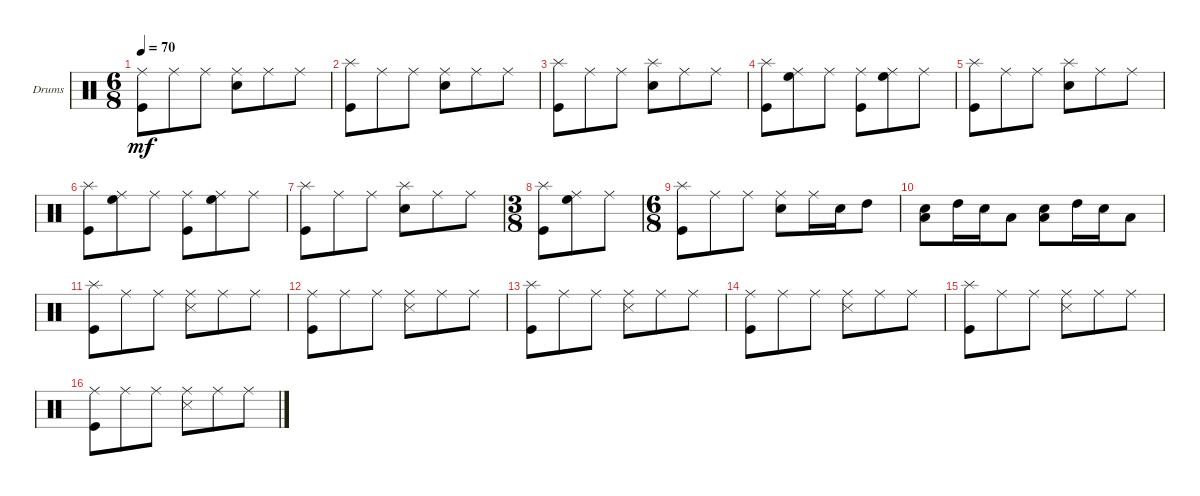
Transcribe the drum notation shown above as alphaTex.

\defaultSystemsLayout 4
\bracketExtendMode groupsimilarinstruments
\firstSystemTrackNameOrientation horizontal
\otherSystemsTrackNameOrientation horizontal
\track ("Drumkit" "Drums") {instrument percussion}
\staff {score}
\articulation defaults
\ts (6 8)
\tempo 70
\clef neutral
\scale
0.333333
\ks c
("Ride (middle)" "Kick (hit)").8{dy mf} "Ride (middle)".8 "Ride (middle)".8 ("Ride (middle)" "Snare (hit) 2").8 "Ride (middle)".8 "Ride (middle)".8 |
\scale
0.333333 ("Kick (hit)" "Splash (hit)").8 "Ride (middle)".8 "Ride (middle)".8 ("Ride (middle)" "Snare (hit) 2").8 "Ride (middle)".8 "Ride (middle)".8 |
\scale
0.333333 ("Splash (hit)" "Kick (hit)").8 "Ride (middle)".8 "Ride (middle)".8 ("Splash (hit)" "Snare (hit) 2").8 "Ride (middle)".8 "Ride (middle)".8 |
\scale
0.333333 ("Splash (hit)" "Kick (hit)").8 ("Ride (middle)" "High Floor Tom (hit)").8 "Ride (middle)".8 ("Ride (middle)" "Kick (hit)").8 ("High Floor Tom (hit)" "Ride (middle)").8 "Ride (middle)".8 |
\scale
0.333333 ("Splash (hit)" "Kick (hit)").8 "Ride (middle)".8 "Ride (middle)".8 ("Splash (hit)" "Snare (hit) 2").8 "Ride (middle)".8 "Ride (middle)".8 |
\scale
0.263889 ("Splash (hit)" "Kick (hit)").8 ("Ride (middle)" "High Floor Tom (hit)").8 "Ride (middle)".8 ("Ride (middle)" "Kick (hit)").8 ("High Floor Tom (hit)" "Ride (middle)").8 "Ride (middle)".8 |
\scale
0.263889 ("Splash (hit)" "Kick (hit)").8 "Ride (middle)".8 "Ride (middle)".8 ("Splash (hit)" "Snare (hit) 2").8 "Ride (middle)".8 "Ride (middle)".8 |
\ts (3 8)
\scale
0.472222 ("Splash (hit)" "Kick (hit)").8 ("Ride (middle)" "High Floor Tom (hit)").8 "Ride (middle)".8 |
\ts (6 8)
\scale
0.472222 ("Splash (hit)" "Kick (hit)").8 "Ride (middle)".8 "Ride (middle)".8 ("Ride (middle)" "Snare (hit) 2").8 "Ride (middle)".16 "Snare (hit) 2".16 "High Tom (hit)".8 |
\scale
0.263889 ("Low Tom (hit)" "Snare (hit) 2").8 "High Tom (hit)".16 "Snare (hit) 2".16 "Low Tom (hit)".8 ("Low Tom (hit)" "Snare (hit) 2").8 "High Tom (hit)".16 "Snare (hit) 2".16 "Low Tom (hit)".8 |
\scale
0.263889 ("Kick (hit)" "Splash (hit)").8 "Ride (middle)".8 "Ride (middle)".8 ("Snare (side stick) 3" "Ride (middle)").8 "Ride (middle)".8 "Ride (middle)".8 |
\scale
0.333333 ("Kick (hit)" "Ride (middle)").8 "Ride (middle)".8 "Ride (middle)".8 ("Snare (side stick) 3" "Ride (middle)").8 "Ride (middle)".8 "Ride (middle)".8 |
\scale
0.333333 ("Kick (hit)" "Splash (hit)").8 "Ride (middle)".8 "Ride (middle)".8 ("Snare (side stick) 3" "Ride (middle)").8 "Ride (middle)".8 "Ride (middle)".8 |
\scale
0.333333 ("Kick (hit)" "Ride (middle)").8 "Ride (middle)".8 "Ride (middle)".8 ("Snare (side stick) 3" "Ride (middle)").8 "Ride (middle)".8 "Ride (middle)".8 |
\scale
0.333333 ("Kick (hit)" "Splash (hit)").8 "Ride (middle)".8 "Ride (middle)".8 ("Snare (side stick) 3" "Ride (middle)").8 "Ride (middle)".8 "Ride (middle)".8 |
\scale
0.333333 ("Kick (hit)" "Ride (middle)").8 "Ride (middle)".8 "Ride (middle)".8 ("Snare (side stick) 3" "Ride (middle)").8 "Ride (middle)".8 "Ride (middle)".8
